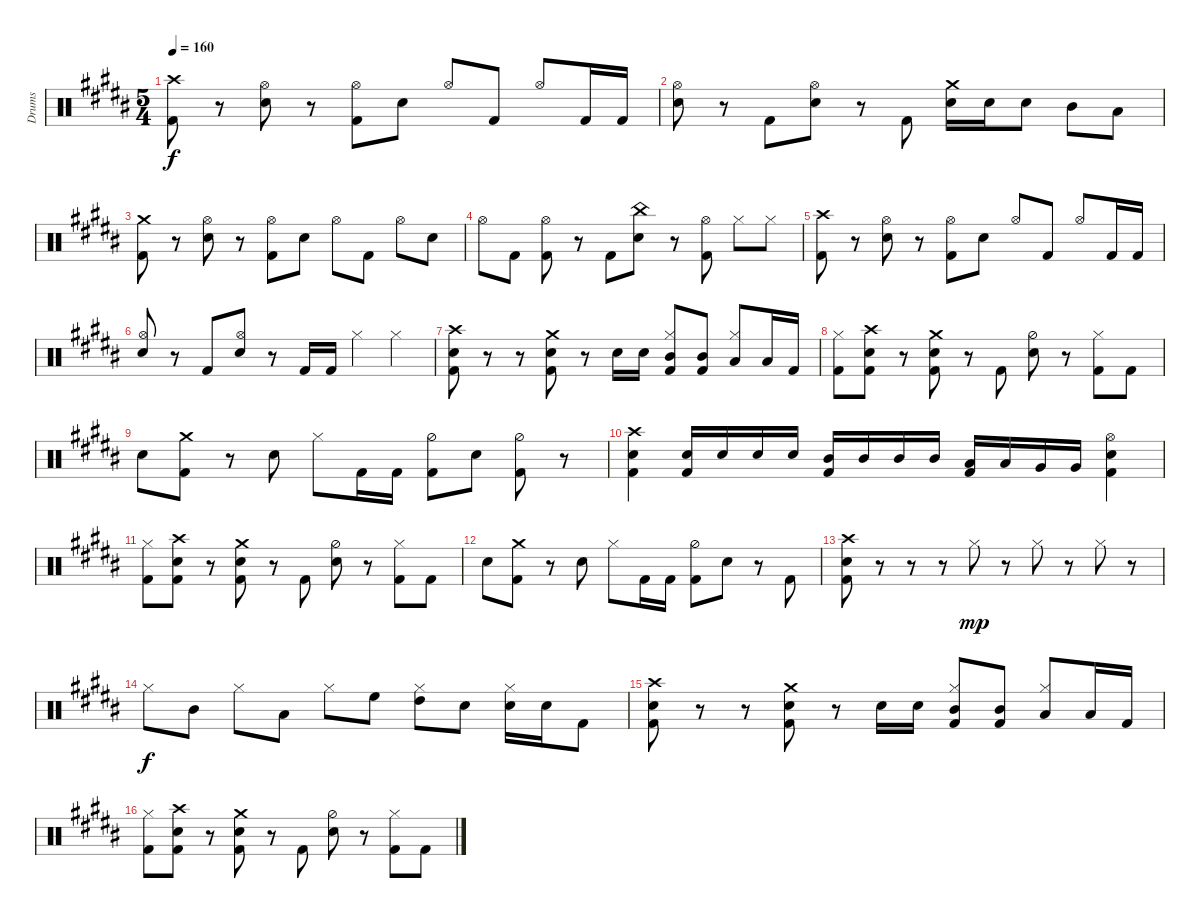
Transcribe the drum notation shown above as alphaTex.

\bracketExtendMode groupsimilarinstruments
\otherSystemsTrackNameOrientation horizontal
\track ("Drumkit" "Drums") {instrument percussion}
\staff {score}
\articulation defaults
\ts (5 4)
\tempo 160
\clef neutral
\ks b
("Kick (hit) 2"{acc bb} "Crash high (hit)"{acc bb}).8{dy f beam Down} r.8{beam Down} ("Snare (hit) 2"{acc bb} "Hi-Hat (open)"{acc bb}).8{beam Down} r.8{beam Down} ("Kick (hit) 2"{acc bb} "Hi-Hat (open)"{acc bb}).8{beam Down} "Snare (hit) 2"{acc bb}.8{beam Down} "Hi-Hat (open)"{acc bb}.8{beam Up} "Kick (hit) 2"{acc bb}.8{beam Up} "Hi-Hat (open)"{acc bb}.8{beam Up} "Kick (hit) 2"{acc bb}.16{beam Up} "Kick (hit) 2"{acc bb}.16{beam Up} |
("Snare (hit) 2"{acc bb} "Hi-Hat (open)"{acc bb}).8{beam Down} r.8{beam Down} "Kick (hit) 2"{acc bb}.8{beam Down} ("Snare (hit) 2"{acc bb} "Hi-Hat (open)"{acc bb}).8{beam Down} r.8{beam Down} "Kick (hit) 2"{acc bb}.8{beam Down} ("Snare (hit) 2"{acc bb} "Crash medium (hit)"{acc bb}).16{beam Down} "Snare (hit) 2"{acc bb}.16{beam Down} "Snare (hit) 2"{acc bb}.8{beam Down} "Mid Tom (hit)"{acc bb}.8{beam Down} "Low Tom (hit)"{acc bb}.8{beam Down} |
("Kick (hit) 2"{acc bb} "Crash medium (hit)"{acc bb}).8{beam Down} r.8{beam Down} ("Snare (hit) 2"{acc bb} "Hi-Hat (open)"{acc bb}).8{beam Down} r.8{beam Down} ("Kick (hit) 2"{acc bb} "Hi-Hat (open)"{acc bb}).8{beam Down} "Snare (hit) 2"{acc bb}.8{beam Down} "Hi-Hat (open)"{acc bb}.8{beam Down} "Kick (hit) 2"{acc bb}.8{beam Down} "Hi-Hat (open)"{acc bb}.8{beam Down} "Snare (hit) 2"{acc bb}.8{beam Down} |
"Hi-Hat (open)"{acc bb}.8{beam Down} "Kick (hit) 2"{acc bb}.8{beam Down} ("Kick (hit) 2"{acc bb} "Hi-Hat (open)"{acc bb}).8{beam Down} r.8{beam Down} "Kick (hit) 2"{acc bb}.8{beam Down} ("China (hit)"{acc bb} "Snare (hit) 2"{acc bb}).8{beam Down} r.8{beam Down} ("Hi-Hat (open)"{acc bb} "Kick (hit) 2"{acc bb}).8{beam Down} "Hi-Hat (closed)"{acc bb}.8{beam Down} "Hi-Hat (closed)"{acc bb}.8{beam Down} |
("Kick (hit) 2"{acc bb} "Crash high (hit)"{acc bb}).8{beam Down} r.8{beam Down} ("Snare (hit) 2"{acc bb} "Hi-Hat (open)"{acc bb}).8{beam Down} r.8{beam Down} ("Kick (hit) 2"{acc bb} "Hi-Hat (open)"{acc bb}).8{beam Down} "Snare (hit) 2"{acc bb}.8{beam Down} "Hi-Hat (open)"{acc bb}.8{beam Up} "Kick (hit) 2"{acc bb}.8{beam Up} "Hi-Hat (open)"{acc bb}.8{beam Up} "Kick (hit) 2"{acc bb}.16{beam Up} "Kick (hit) 2"{acc bb}.16{beam Up} |
("Snare (hit) 2"{acc bb} "Hi-Hat (open)"{acc bb}).8{beam Up} r.8{beam Up} "Kick (hit) 2"{acc bb}.8{beam Up} ("Snare (hit) 2"{acc bb} "Hi-Hat (open)"{acc bb}).8{beam Up} r.8{beam Up} "Kick (hit) 2"{acc bb}.16{beam Up} "Kick (hit) 2"{acc bb}.16{beam Up} "Hi-Hat (closed)"{acc bb}.4{beam Down} "Hi-Hat (closed)"{acc bb}.4{beam Down} |
("Snare (hit) 2"{acc bb} "Kick (hit) 2"{acc bb} "Crash high (hit)"{acc bb}).8{beam Down} r.8{beam Down} r.8{beam Down} ("Snare (hit) 2"{acc bb} "Crash medium (hit)"{acc bb} "Kick (hit) 2"{acc bb}).8{beam Down} r.8{beam Down} "Snare (hit) 2"{acc bb}.16{beam Down} "Snare (hit) 2"{acc bb}.16{beam Down} ("Mid Tom (hit)"{acc bb} "Kick (hit) 2"{acc bb} "Hi-Hat (closed)"{acc bb}).8{beam Up} ("Mid Tom (hit)"{acc bb} "Kick (hit) 2"{acc bb}).8{beam Up} ("Low Tom (hit)"{acc bb} "Hi-Hat (closed)"{acc bb}).8{beam Up} "Low Tom (hit)"{acc bb}.16{beam Up} "Kick (hit) 2"{acc bb}.16{beam Up} |
("Kick (hit) 2"{acc bb} "Hi-Hat (closed)"{acc bb}).8{beam Down} ("Kick (hit) 2"{acc bb} "Crash high (hit)"{acc bb} "Snare (hit) 2"{acc bb}).8{beam Down} r.8{beam Down} ("Crash medium (hit)"{acc bb} "Kick (hit) 2"{acc bb} "Snare (hit) 2"{acc bb}).8{beam Down} r.8{beam Down} "Kick (hit) 2"{acc bb}.8{beam Down} ("Snare (hit) 2"{acc bb} "Hi-Hat (half)"{acc bb}).8{beam Down} r.8{beam Down} ("Kick (hit) 2"{acc bb} "Hi-Hat (closed)"{acc bb}).8{beam Down} "Kick (hit) 2"{acc bb}.8{beam Down} |
"Snare (hit) 2"{acc bb}.8{beam Down} ("Kick (hit) 2"{acc bb} "Crash medium (hit)"{acc bb}).8{beam Down} r.8{beam Down} "Snare (hit) 2"{acc bb}.8{beam Down} "Hi-Hat (closed)"{acc bb}.8{beam Down} "Kick (hit) 2"{acc bb}.16{beam Down} "Kick (hit) 2"{acc bb}.16{beam Down} ("Hi-Hat (half)"{acc bb} "Kick (hit) 2"{acc bb}).8{beam Down} "Snare (hit) 2"{acc bb}.8{beam Down} ("Hi-Hat (half)"{acc bb} "Kick (hit) 2"{acc bb}).8{beam Down} r.8{beam Down} |
("Crash high (hit)"{acc bb} "Snare (hit) 2"{acc bb} "Kick (hit) 2"{acc bb}).4{beam Down} ("Snare (hit) 2"{acc bb} "Kick (hit) 2"{acc bb}).16{beam Up} "Snare (hit) 2"{acc bb}.16{beam Up} "Snare (hit) 2"{acc bb}.16{beam Up} "Snare (hit) 2"{acc bb}.16{beam Up} ("Mid Tom (hit)"{acc bb} "Kick (hit) 2"{acc bb}).16{beam Up} "Mid Tom (hit)"{acc bb}.16{beam Up} "Mid Tom (hit)"{acc bb}.16{beam Up} "Mid Tom (hit)"{acc bb}.16{beam Up} ("Low Tom (hit)"{acc bb} "Kick (hit) 2"{acc bb}).16{beam Up} "Low Tom (hit)"{acc bb}.16{beam Up} "Very Low Tom (hit)"{acc bb}.16{beam Up} "Very Low Tom (hit)"{acc bb}.16{beam Up} ("Hi-Hat (open)"{acc bb} "Snare (hit) 2"{acc bb} "Kick (hit) 2"{acc bb}).4{beam Down} |
("Kick (hit) 2"{acc bb} "Hi-Hat (closed)"{acc bb}).8{beam Down} ("Kick (hit) 2"{acc bb} "Crash high (hit)"{acc bb} "Snare (hit) 2"{acc bb}).8{beam Down} r.8{beam Down} ("Crash medium (hit)"{acc bb} "Kick (hit) 2"{acc bb} "Snare (hit) 2"{acc bb}).8{beam Down} r.8{beam Down} "Kick (hit) 2"{acc bb}.8{beam Down} ("Snare (hit) 2"{acc bb} "Hi-Hat (half)"{acc bb}).8{beam Down} r.8{beam Down} ("Kick (hit) 2"{acc bb} "Hi-Hat (closed)"{acc bb}).8{beam Down} "Kick (hit) 2"{acc bb}.8{beam Down} |
"Snare (hit) 2"{acc bb}.8{beam Down} ("Kick (hit) 2"{acc bb} "Crash medium (hit)"{acc bb}).8{beam Down} r.8{beam Down} "Snare (hit) 2"{acc bb}.8{beam Down} "Hi-Hat (closed)"{acc bb}.8{beam Down} "Kick (hit) 2"{acc bb}.16{beam Down} "Kick (hit) 2"{acc bb}.16{beam Down} ("Hi-Hat (half)"{acc bb} "Kick (hit) 2"{acc bb}).8{beam Down} "Snare (hit) 2"{acc bb}.8{beam Down} r.8{beam Down} "Kick (hit) 2"{acc bb}.8{beam Down} |
("Crash high (hit)"{acc bb} "Snare (hit) 2"{acc bb} "Kick (hit) 2"{acc bb}).8{beam Down} r.8{beam Down} r.8{beam Down} r.8{beam Down} "Hi-Hat (closed)"{acc bb}.8{dy mp beam Down} r.8{beam Down} "Hi-Hat (closed)"{acc bb}.8{beam Down} r.8{beam Down} "Hi-Hat (closed)"{acc bb}.8{beam Down} r.8{beam Down} |
"Hi-Hat (closed)"{acc bb}.8{dy f beam Down} "Mid Tom (hit)"{acc bb}.8{beam Down} "Hi-Hat (closed)"{acc bb}.8{beam Down} "Low Tom (hit)"{acc bb}.8{beam Down} "Hi-Hat (closed)"{acc bb}.8{beam Down} "High Floor Tom (hit)"{acc bb}.8{beam Down} ("Hi-Hat (closed)"{acc bb} "High Tom (hit)"{acc bb}).8{beam Down} "Snare (hit) 2"{acc bb}.8{beam Down} ("Hi-Hat (closed)"{acc bb} "Snare (hit) 2"{acc bb}).16{beam Down} "Snare (hit) 2"{acc bb}.16{beam Down} "Kick (hit) 2"{acc bb}.8{beam Down} |
("Snare (hit) 2"{acc bb} "Kick (hit) 2"{acc bb} "Crash high (hit)"{acc bb}).8{beam Down} r.8{beam Down} r.8{beam Down} ("Snare (hit) 2"{acc bb} "Crash medium (hit)"{acc bb} "Kick (hit) 2"{acc bb}).8{beam Down} r.8{beam Down} "Snare (hit) 2"{acc bb}.16{beam Down} "Snare (hit) 2"{acc bb}.16{beam Down} ("Mid Tom (hit)"{acc bb} "Kick (hit) 2"{acc bb} "Hi-Hat (closed)"{acc bb}).8{beam Up} ("Mid Tom (hit)"{acc bb} "Kick (hit) 2"{acc bb}).8{beam Up} ("Low Tom (hit)"{acc bb} "Hi-Hat (closed)"{acc bb}).8{beam Up} "Low Tom (hit)"{acc bb}.16{beam Up} "Kick (hit) 2"{acc bb}.16{beam Up} |
("Kick (hit) 2"{acc bb} "Hi-Hat (closed)"{acc bb}).8{beam Down} ("Kick (hit) 2"{acc bb} "Crash high (hit)"{acc bb} "Snare (hit) 2"{acc bb}).8{beam Down} r.8{beam Down} ("Crash medium (hit)"{acc bb} "Kick (hit) 2"{acc bb} "Snare (hit) 2"{acc bb}).8{beam Down} r.8{beam Down} "Kick (hit) 2"{acc bb}.8{beam Down} ("Snare (hit) 2"{acc bb} "Hi-Hat (half)"{acc bb}).8{beam Down} r.8{beam Down} ("Kick (hit) 2"{acc bb} "Hi-Hat (closed)"{acc bb}).8{beam Down} "Kick (hit) 2"{acc bb}.8{beam Down}
